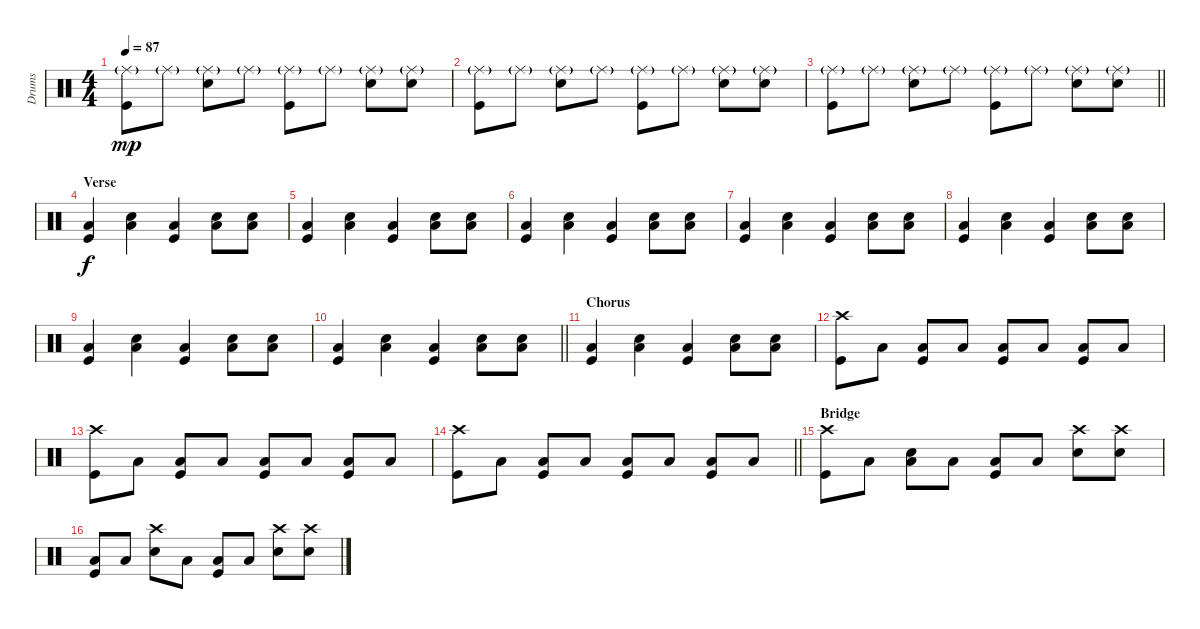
\track ("Drums" "Drums") {instrument percussion}
\staff {score}
\articulation defaults
\ts (4 4)
\tempo 87
\clef neutral
\ks c
("Ride (middle)"{g} "Kick (hit)").8{dy mp} "Ride (middle)"{g}.8 ("Ride (middle)"{g} "Snare (hit) 2").8 "Ride (middle)"{g}.8 ("Ride (middle)"{g} "Kick (hit)").8 "Ride (middle)"{g}.8 ("Ride (middle)"{g} "Snare (hit) 2").8 ("Ride (middle)"{g} "Snare (hit) 2").8 |
("Ride (middle)"{g} "Kick (hit)").8 "Ride (middle)"{g}.8 ("Ride (middle)"{g} "Snare (hit) 2").8 "Ride (middle)"{g}.8 ("Ride (middle)"{g} "Kick (hit)").8 "Ride (middle)"{g}.8 ("Ride (middle)"{g} "Snare (hit) 2").8 ("Ride (middle)"{g} "Snare (hit) 2").8 |
\barLineRight lightlight
("Ride (middle)"{g} "Kick (hit)").8 "Ride (middle)"{g}.8 ("Ride (middle)"{g} "Snare (hit) 2").8 "Ride (middle)"{g}.8 ("Ride (middle)"{g} "Kick (hit)").8 "Ride (middle)"{g}.8 ("Ride (middle)"{g} "Snare (hit) 2").8 ("Ride (middle)"{g} "Snare (hit) 2").8 |
\section ("" "Verse")
("Low Floor Tom (hit)" "Kick (hit)").4{dy f} ("Snare (hit) 2" "Low Floor Tom (hit)").4 ("Low Floor Tom (hit)" "Kick (hit)").4 ("Snare (hit) 2" "Low Floor Tom (hit)").8 ("Snare (hit) 2" "Low Floor Tom (hit)").8 |
("Low Floor Tom (hit)" "Kick (hit)").4 ("Snare (hit) 2" "Low Floor Tom (hit)").4 ("Low Floor Tom (hit)" "Kick (hit)").4 ("Snare (hit) 2" "Low Floor Tom (hit)").8 ("Snare (hit) 2" "Low Floor Tom (hit)").8 |
("Low Floor Tom (hit)" "Kick (hit)").4 ("Snare (hit) 2" "Low Floor Tom (hit)").4 ("Low Floor Tom (hit)" "Kick (hit)").4 ("Snare (hit) 2" "Low Floor Tom (hit)").8 ("Snare (hit) 2" "Low Floor Tom (hit)").8 |
("Low Floor Tom (hit)" "Kick (hit)").4 ("Snare (hit) 2" "Low Floor Tom (hit)").4 ("Low Floor Tom (hit)" "Kick (hit)").4 ("Snare (hit) 2" "Low Floor Tom (hit)").8 ("Snare (hit) 2" "Low Floor Tom (hit)").8 |
("Low Floor Tom (hit)" "Kick (hit)").4 ("Snare (hit) 2" "Low Floor Tom (hit)").4 ("Low Floor Tom (hit)" "Kick (hit)").4 ("Snare (hit) 2" "Low Floor Tom (hit)").8 ("Snare (hit) 2" "Low Floor Tom (hit)").8 |
("Low Floor Tom (hit)" "Kick (hit)").4 ("Snare (hit) 2" "Low Floor Tom (hit)").4 ("Low Floor Tom (hit)" "Kick (hit)").4 ("Snare (hit) 2" "Low Floor Tom (hit)").8 ("Snare (hit) 2" "Low Floor Tom (hit)").8 |
\barLineRight lightlight
("Low Floor Tom (hit)" "Kick (hit)").4 ("Snare (hit) 2" "Low Floor Tom (hit)").4 ("Low Floor Tom (hit)" "Kick (hit)").4 ("Snare (hit) 2" "Low Floor Tom (hit)").8 ("Snare (hit) 2" "Low Floor Tom (hit)").8 |
\section ("" "Chorus")
("Low Floor Tom (hit)" "Kick (hit)").4 ("Snare (hit) 2" "Low Floor Tom (hit)").4 ("Low Floor Tom (hit)" "Kick (hit)").4 ("Snare (hit) 2" "Low Floor Tom (hit)").8 ("Snare (hit) 2" "Low Floor Tom (hit)").8 |
("Crash high (hit)" "Kick (hit)").8 "Low Floor Tom (hit)".8 ("Low Floor Tom (hit)" "Kick (hit)").8 "Low Floor Tom (hit)".8 ("Low Floor Tom (hit)" "Kick (hit)").8 "Low Floor Tom (hit)".8 ("Low Floor Tom (hit)" "Kick (hit)").8 "Low Floor Tom (hit)".8 |
("Crash high (hit)" "Kick (hit)").8 "Low Floor Tom (hit)".8 ("Low Floor Tom (hit)" "Kick (hit)").8 "Low Floor Tom (hit)".8 ("Low Floor Tom (hit)" "Kick (hit)").8 "Low Floor Tom (hit)".8 ("Low Floor Tom (hit)" "Kick (hit)").8 "Low Floor Tom (hit)".8 |
\barLineRight lightlight
("Crash high (hit)" "Kick (hit)").8 "Low Floor Tom (hit)".8 ("Low Floor Tom (hit)" "Kick (hit)").8 "Low Floor Tom (hit)".8 ("Low Floor Tom (hit)" "Kick (hit)").8 "Low Floor Tom (hit)".8 ("Low Floor Tom (hit)" "Kick (hit)").8 "Low Floor Tom (hit)".8 |
\section ("" "Bridge")
("Crash high (hit)" "Kick (hit)").8 "Low Floor Tom (hit)".8 ("Snare (hit) 2" "Low Floor Tom (hit)").8 "Low Floor Tom (hit)".8 ("Low Floor Tom (hit)" "Kick (hit)").8 "Low Floor Tom (hit)".8 ("Crash high (hit)" "Snare (hit) 2").8 ("Crash high (hit)" "Snare (hit) 2").8 |
("Low Floor Tom (hit)" "Kick (hit)").8 "Low Floor Tom (hit)".8 ("Crash high (hit)" "Snare (hit) 2").8 "Low Floor Tom (hit)".8 ("Low Floor Tom (hit)" "Kick (hit)").8 "Low Floor Tom (hit)".8 ("Crash high (hit)" "Snare (hit) 2").8 ("Crash high (hit)" "Snare (hit) 2").8
